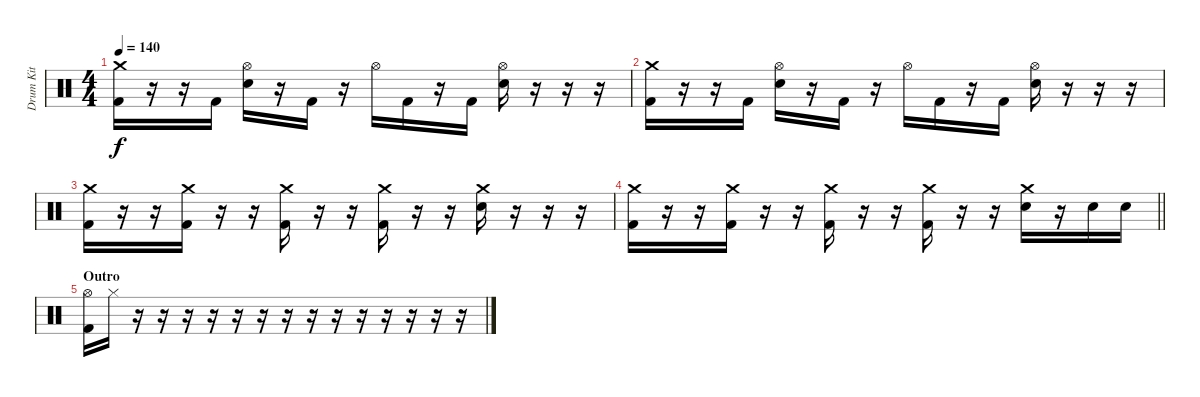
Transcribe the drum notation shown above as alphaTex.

\track ("Drum Kit" "Drum Kit") {instrument percussion}
\staff {score}
\articulation defaults
\ts (4 4)
\tempo 140
\clef neutral
\ks c
("Crash medium (hit)" "Kick (hit) 2").16{dy f} r.16 r.16 "Kick (hit) 2".16 ("Hi-Hat (open)" "Electric Snare (hit)").16 r.16 "Kick (hit) 2".16 r.16 "Hi-Hat (open)".16 "Kick (hit) 2".16 r.16 "Kick (hit) 2".16 ("Hi-Hat (open)" "Electric Snare (hit)").16 r.16 r.16 r.16 |
("Crash medium (hit)" "Kick (hit) 2").16 r.16 r.16 "Kick (hit) 2".16 ("Hi-Hat (open)" "Electric Snare (hit)").16 r.16 "Kick (hit) 2".16 r.16 "Hi-Hat (open)".16 "Kick (hit) 2".16 r.16 "Kick (hit) 2".16 ("Hi-Hat (open)" "Electric Snare (hit)").16 r.16 r.16 r.16 |
("Crash medium (hit)" "Kick (hit) 2").16 r.16 r.16 ("Crash medium (hit)" "Kick (hit) 2").16 r.16 r.16 ("Crash medium (hit)" "Kick (hit) 2").16 r.16 r.16 ("Crash medium (hit)" "Kick (hit) 2").16 r.16 r.16 ("Crash medium (hit)" "Electric Snare (hit)").16 r.16 r.16 r.16 |
\barLineRight lightlight
("Crash medium (hit)" "Kick (hit) 2").16 r.16 r.16 ("Crash medium (hit)" "Kick (hit) 2").16 r.16 r.16 ("Crash medium (hit)" "Kick (hit) 2").16 r.16 r.16 ("Crash medium (hit)" "Kick (hit) 2").16 r.16 r.16 ("Crash medium (hit)" "Electric Snare (hit)").16 r.16 "Electric Snare (hit)".16 "Electric Snare (hit)".16 |
\section ("" "Outro")
("Hi-Hat (open)" "Kick (hit) 2").16 "Hi-Hat (closed)".16 r.16 r.16 r.16 r.16 r.16 r.16 r.16 r.16 r.16 r.16 r.16 r.16 r.16 r.16
